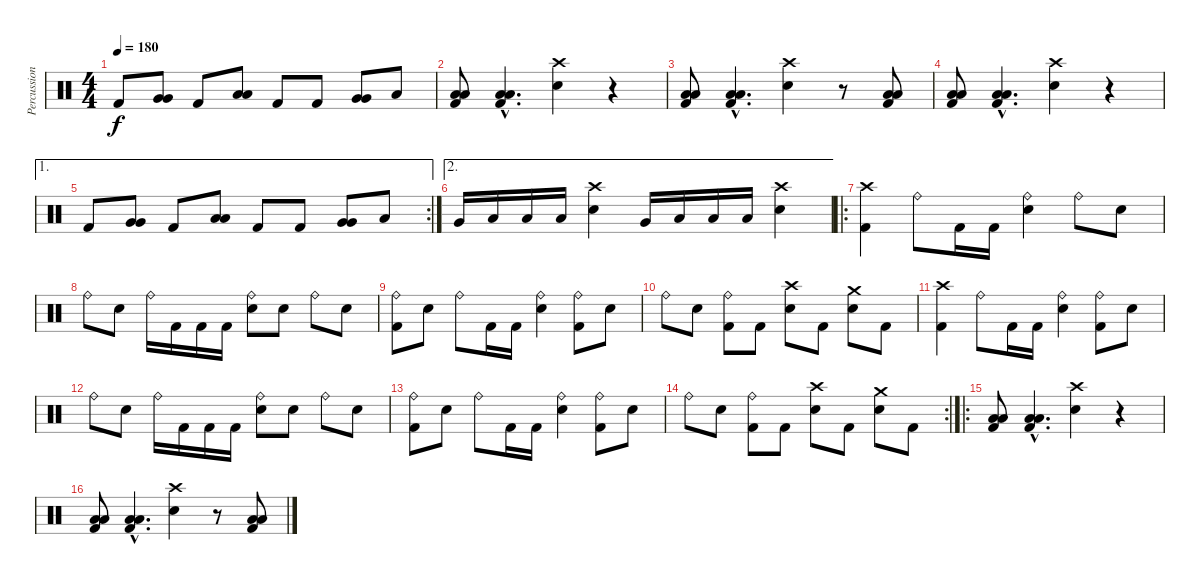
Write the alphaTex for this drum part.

\track ("Percussions" "Percussion") {instrument percussion}
\staff {score}
\articulation defaults
\ts (4 4)
\tempo 180
\clef neutral
\ks c "Kick (hit) 2".8{dy f}
("Very Low Tom (hit)" "Very Low Tom (hit)").8{bd 240} "Kick (hit) 2".8 ("Low Floor Tom (hit)" "Low Floor Tom (hit)").8{bd 240} "Kick (hit) 2".8 "Kick (hit) 2".8 ("Very Low Tom (hit)" "Very Low Tom (hit)").8{bd 240} "Low Floor Tom (hit)".8 |
("Low Floor Tom (hit)" "Low Floor Tom (hit)" "Kick (hit) 2").8 ("Low Floor Tom (hit)"{hac} "Low Floor Tom (hit)"{hac} "Kick (hit) 2"{hac}).4{d} ("Crash high (hit)" "Snare (hit) 2").4 r.4 |
("Low Floor Tom (hit)" "Low Floor Tom (hit)" "Kick (hit) 2").8 ("Low Floor Tom (hit)"{hac} "Low Floor Tom (hit)"{hac} "Kick (hit) 2"{hac}).4{d} ("Crash high (hit)" "Snare (hit) 2").4 r.8 ("Low Floor Tom (hit)" "Low Floor Tom (hit)" "Kick (hit) 2").8 |
("Low Floor Tom (hit)" "Low Floor Tom (hit)" "Kick (hit) 2").8 ("Low Floor Tom (hit)"{hac} "Low Floor Tom (hit)"{hac} "Kick (hit) 2"{hac}).4{d} ("Crash high (hit)" "Snare (hit) 2").4 r.4 |
\ae 1
\rc 2 "Kick (hit) 2".8
("Very Low Tom (hit)" "Very Low Tom (hit)").8{bd 240} "Kick (hit) 2".8 ("Low Floor Tom (hit)" "Low Floor Tom (hit)").8{bd 240} "Kick (hit) 2".8 "Kick (hit) 2".8 ("Very Low Tom (hit)" "Very Low Tom (hit)").8{bd 240} "Low Floor Tom (hit)".8 |
\ae 2 "Very Low Tom (hit)".16 "Low Floor Tom (hit)".16 "Low Floor Tom (hit)".16 "Low Floor Tom (hit)".16
("Crash high (hit)" "Snare (hit) 2").4 "Very Low Tom (hit)".16 "Low Floor Tom (hit)".16 "Low Floor Tom (hit)".16 "Low Floor Tom (hit)".16 ("Crash high (hit)" "Snare (hit) 2").4 |
\ro
("Crash high (hit)" "Kick (hit) 2").4 "Ride (bell)".8 "Kick (hit) 2".16 "Kick (hit) 2".16 ("Ride (bell)" "Snare (hit) 2").4 "Ride (bell)".8 "Snare (hit) 2".8 |
"Ride (bell)".8 "Snare (hit) 2".8 "Ride (bell)".16 "Kick (hit) 2".16 "Kick (hit) 2".16 "Kick (hit) 2".16 ("Ride (bell)" "Snare (hit) 2").8 "Snare (hit) 2".8 "Ride (bell)".8 "Snare (hit) 2".8 |
("Ride (bell)" "Kick (hit) 2").8 "Snare (hit) 2".8 "Ride (bell)".8 "Kick (hit) 2".16 "Kick (hit) 2".16 ("Ride (bell)" "Snare (hit) 2").4 ("Ride (bell)" "Kick (hit) 2").8 "Snare (hit) 2".8 |
"Ride (bell)".8 "Snare (hit) 2".8 ("Ride (bell)" "Kick (hit) 2").8 "Kick (hit) 2".8 ("Crash high (hit)" "Snare (hit) 2").8 "Kick (hit) 2".8 ("Crash medium (hit)" "Snare (hit) 2").8 "Kick (hit) 2".8 |
("Crash high (hit)" "Kick (hit) 2").4 "Ride (bell)".8 "Kick (hit) 2".16 "Kick (hit) 2".16 ("Ride (bell)" "Snare (hit) 2").4 ("Ride (bell)" "Kick (hit) 2").8 "Snare (hit) 2".8 |
"Ride (bell)".8 "Snare (hit) 2".8 "Ride (bell)".16 "Kick (hit) 2".16 "Kick (hit) 2".16 "Kick (hit) 2".16 ("Ride (bell)" "Snare (hit) 2").8 "Snare (hit) 2".8 "Ride (bell)".8 "Snare (hit) 2".8 |
("Ride (bell)" "Kick (hit) 2").8 "Snare (hit) 2".8 "Ride (bell)".8 "Kick (hit) 2".16 "Kick (hit) 2".16 ("Ride (bell)" "Snare (hit) 2").4 ("Ride (bell)" "Kick (hit) 2").8 "Snare (hit) 2".8 |
\rc 2 "Ride (bell)".8 "Snare (hit) 2".8
("Ride (bell)" "Kick (hit) 2").8 "Kick (hit) 2".8 ("Crash high (hit)" "Snare (hit) 2").8 "Kick (hit) 2".8 ("Crash medium (hit)" "Snare (hit) 2").8 "Kick (hit) 2".8 |
\ro
("Low Floor Tom (hit)" "Low Floor Tom (hit)" "Kick (hit) 2").8 ("Low Floor Tom (hit)"{hac} "Low Floor Tom (hit)"{hac} "Kick (hit) 2"{hac}).4{d} ("Crash high (hit)" "Snare (hit) 2").4 r.4 |
("Low Floor Tom (hit)" "Low Floor Tom (hit)" "Kick (hit) 2").8 ("Low Floor Tom (hit)"{hac} "Low Floor Tom (hit)"{hac} "Kick (hit) 2"{hac}).4{d} ("Crash high (hit)" "Snare (hit) 2").4 r.8 ("Low Floor Tom (hit)" "Low Floor Tom (hit)" "Kick (hit) 2").8
